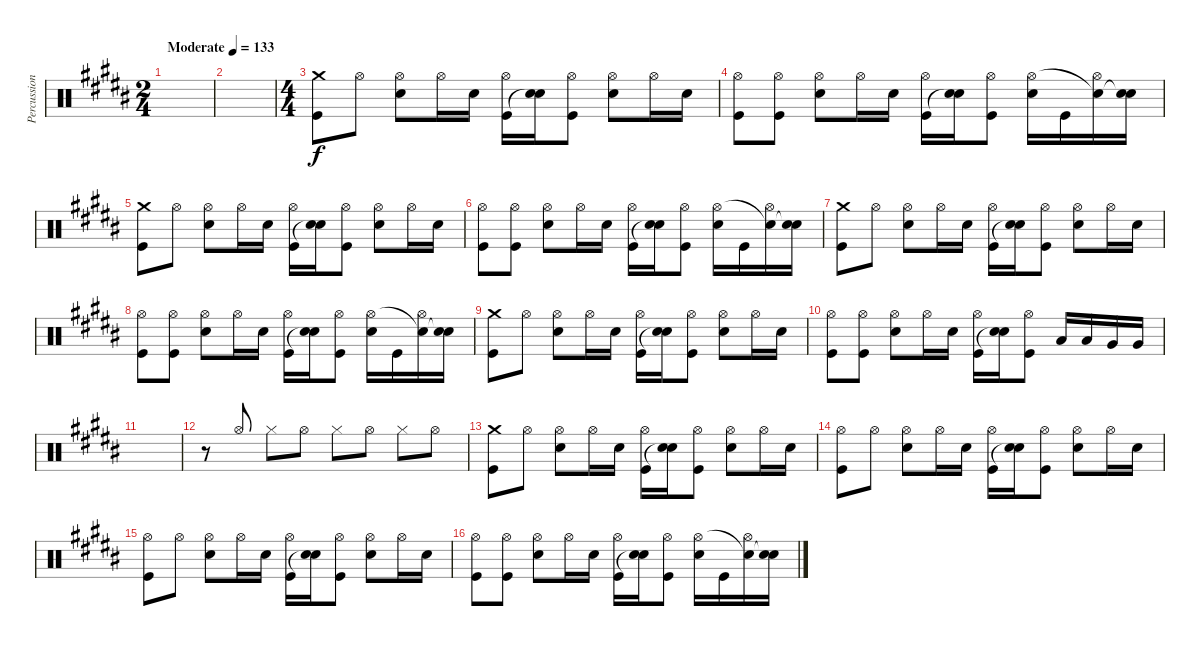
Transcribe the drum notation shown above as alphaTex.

\track ("Percussion" "Percussion") {instrument percussion}
\staff {score}
\articulation defaults
\ts (2 4)
\tempo (133 "Moderate")
\clef neutral
\ks b
|
|
\ts (4 4)
("Crash medium (hit)" "Kick (hit)").8 "Hi-Hat (open)".8 ("Hi-Hat (open)" "Electric Snare (hit)").8 "Hi-Hat (open)".16 "Electric Snare (hit)".16 ("Hi-Hat (open)" "Kick (hit)").16 ("Electric Snare (hit)" "Snare (hit)"{t}).16 ("Hi-Hat (open)" "Kick (hit)").8 ("Hi-Hat (open)" "Electric Snare (hit)").8 "Hi-Hat (open)".16 "Electric Snare (hit)".16 |
("Kick (hit)" "Hi-Hat (open)").8 ("Kick (hit)" "Hi-Hat (open)").8 ("Electric Snare (hit)" "Hi-Hat (open)").8 "Hi-Hat (open)".16 "Electric Snare (hit)".16 ("Kick (hit)" "Hi-Hat (open)").16 ("Snare (hit)"{t} "Electric Snare (hit)").16 ("Kick (hit)" "Hi-Hat (open)").8 ("Electric Snare (hit)" "Hi-Hat (open)").16 "Kick (hit)".16 ("Hi-Hat (open)" "Snare (hit)"{t}).16 ("Electric Snare (hit)" "Snare (hit)"{t}).16 |
("Crash medium (hit)" "Kick (hit)").8 "Hi-Hat (open)".8 ("Hi-Hat (open)" "Electric Snare (hit)").8 "Hi-Hat (open)".16 "Electric Snare (hit)".16 ("Hi-Hat (open)" "Kick (hit)").16 ("Electric Snare (hit)" "Snare (hit)"{t}).16 ("Hi-Hat (open)" "Kick (hit)").8 ("Hi-Hat (open)" "Electric Snare (hit)").8 "Hi-Hat (open)".16 "Electric Snare (hit)".16 |
("Kick (hit)" "Hi-Hat (open)").8 ("Kick (hit)" "Hi-Hat (open)").8 ("Electric Snare (hit)" "Hi-Hat (open)").8 "Hi-Hat (open)".16 "Electric Snare (hit)".16 ("Kick (hit)" "Hi-Hat (open)").16 ("Snare (hit)"{t} "Electric Snare (hit)").16 ("Kick (hit)" "Hi-Hat (open)").8 ("Electric Snare (hit)" "Hi-Hat (open)").16 "Kick (hit)".16 ("Hi-Hat (open)" "Snare (hit)"{t}).16 ("Electric Snare (hit)" "Snare (hit)"{t}).16 |
("Crash medium (hit)" "Kick (hit)").8 "Hi-Hat (open)".8 ("Hi-Hat (open)" "Electric Snare (hit)").8 "Hi-Hat (open)".16 "Electric Snare (hit)".16 ("Hi-Hat (open)" "Kick (hit)").16 ("Electric Snare (hit)" "Snare (hit)"{t}).16 ("Hi-Hat (open)" "Kick (hit)").8 ("Hi-Hat (open)" "Electric Snare (hit)").8 "Hi-Hat (open)".16 "Electric Snare (hit)".16 |
("Kick (hit)" "Hi-Hat (open)").8 ("Kick (hit)" "Hi-Hat (open)").8 ("Electric Snare (hit)" "Hi-Hat (open)").8 "Hi-Hat (open)".16 "Electric Snare (hit)".16 ("Kick (hit)" "Hi-Hat (open)").16 ("Snare (hit)"{t} "Electric Snare (hit)").16 ("Kick (hit)" "Hi-Hat (open)").8 ("Electric Snare (hit)" "Hi-Hat (open)").16 "Kick (hit)".16 ("Hi-Hat (open)" "Snare (hit)"{t}).16 ("Electric Snare (hit)" "Snare (hit)"{t}).16 |
("Crash medium (hit)" "Kick (hit)").8 "Hi-Hat (open)".8 ("Hi-Hat (open)" "Electric Snare (hit)").8 "Hi-Hat (open)".16 "Electric Snare (hit)".16 ("Hi-Hat (open)" "Kick (hit)").16 ("Electric Snare (hit)" "Snare (hit)"{t}).16 ("Hi-Hat (open)" "Kick (hit)").8 ("Hi-Hat (open)" "Electric Snare (hit)").8 "Hi-Hat (open)".16 "Electric Snare (hit)".16 |
("Kick (hit)" "Hi-Hat (open)").8 ("Kick (hit)" "Hi-Hat (open)").8 ("Electric Snare (hit)" "Hi-Hat (open)").8 "Hi-Hat (open)".16 "Electric Snare (hit)".16 ("Kick (hit)" "Hi-Hat (open)").16 ("Snare (hit)"{t} "Electric Snare (hit)").16 ("Kick (hit)" "Hi-Hat (open)").8 "Low Tom (hit)".16 "Low Tom (hit)".16 "Very Low Tom (hit)".16 "Very Low Tom (hit)".16 |
|
r.8 "Hi-Hat (open)".8{beam Up} "Hi-Hat (closed)".8 "Hi-Hat (open)".8 "Hi-Hat (closed)".8 "Hi-Hat (open)".8 "Hi-Hat (closed)".8 "Hi-Hat (open)".8 |
("Crash medium (hit)" "Kick (hit)").8 "Hi-Hat (open)".8 ("Hi-Hat (open)" "Electric Snare (hit)").8 "Hi-Hat (open)".16 "Electric Snare (hit)".16 ("Hi-Hat (open)" "Kick (hit)").16 ("Electric Snare (hit)" "Snare (hit)"{t}).16 ("Hi-Hat (open)" "Kick (hit)").8 ("Hi-Hat (open)" "Electric Snare (hit)").8 "Hi-Hat (open)".16 "Electric Snare (hit)".16 |
("Hi-Hat (open)" "Kick (hit)").8 "Hi-Hat (open)".8 ("Hi-Hat (open)" "Electric Snare (hit)").8 "Hi-Hat (open)".16 "Electric Snare (hit)".16 ("Hi-Hat (open)" "Kick (hit)").16 ("Electric Snare (hit)" "Snare (hit)"{t}).16 ("Hi-Hat (open)" "Kick (hit)").8 ("Hi-Hat (open)" "Electric Snare (hit)").8 "Hi-Hat (open)".16 "Electric Snare (hit)".16 |
("Hi-Hat (open)" "Kick (hit)").8 "Hi-Hat (open)".8 ("Hi-Hat (open)" "Electric Snare (hit)").8 "Hi-Hat (open)".16 "Electric Snare (hit)".16 ("Hi-Hat (open)" "Kick (hit)").16 ("Electric Snare (hit)" "Snare (hit)"{t}).16 ("Hi-Hat (open)" "Kick (hit)").8 ("Hi-Hat (open)" "Electric Snare (hit)").8 "Hi-Hat (open)".16 "Electric Snare (hit)".16 |
("Kick (hit)" "Hi-Hat (open)").8 ("Kick (hit)" "Hi-Hat (open)").8 ("Electric Snare (hit)" "Hi-Hat (open)").8 "Hi-Hat (open)".16 "Electric Snare (hit)".16 ("Kick (hit)" "Hi-Hat (open)").16 ("Snare (hit)"{t} "Electric Snare (hit)").16 ("Kick (hit)" "Hi-Hat (open)").8 ("Electric Snare (hit)" "Hi-Hat (open)").16 "Kick (hit)".16 ("Hi-Hat (open)" "Snare (hit)"{t}).16 ("Electric Snare (hit)" "Snare (hit)"{t}).16
